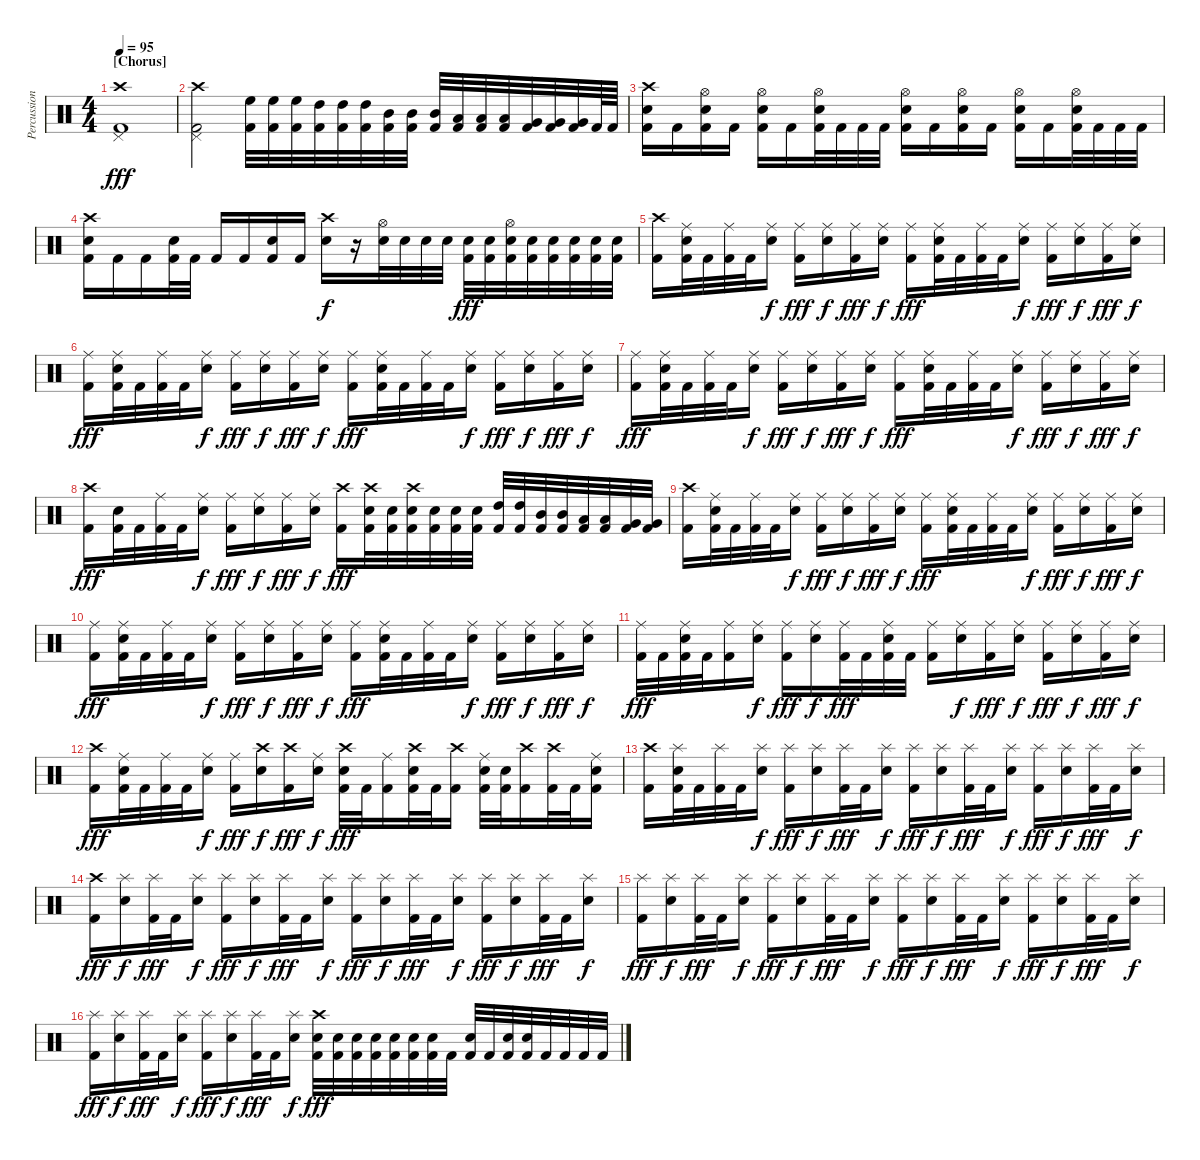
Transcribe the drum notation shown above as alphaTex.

\track ("Percussion" "Percussion") {instrument percussion}
\staff {score}
\articulation defaults
\ts (4 4)
\section ("" "[Chorus]")
\tempo 95
\clef neutral
\ks c
("Crash high (hit)" "Pedal Hi-Hat (hit)" "Kick (hit) 2").1{dy fff} |
("Crash high (hit)" "Pedal Hi-Hat (hit)" "Kick (hit) 2").2 ("High Floor Tom (hit)" "Kick (hit) 2").32 ("High Floor Tom (hit)" "Kick (hit) 2").32 ("High Floor Tom (hit)" "Kick (hit) 2").32 ("High Tom (hit)" "Kick (hit) 2").32 ("High Tom (hit)" "Kick (hit) 2").32 ("High Tom (hit)" "Kick (hit) 2").32 ("Mid Tom (hit)" "Kick (hit) 2").32 ("Mid Tom (hit)" "Kick (hit) 2").32 ("Mid Tom (hit)" "Kick (hit) 2").32 ("Low Tom (hit)" "Kick (hit) 2").32 ("Low Tom (hit)" "Kick (hit) 2").32 ("Low Tom (hit)" "Kick (hit) 2").32 ("Very Low Tom (hit)" "Kick (hit) 2").32 ("Very Low Tom (hit)" "Kick (hit) 2").32 ("Very Low Tom (hit)" "Kick (hit) 2").32 "Kick (hit) 2".64 "Kick (hit) 2".64 |
("Crash high (hit)" "Snare (hit) 2" "Kick (hit) 2").16 "Kick (hit) 2".16 ("Hi-Hat (open)" "Snare (hit) 2" "Kick (hit) 2").16 "Kick (hit) 2".16 ("Hi-Hat (open)" "Snare (hit) 2" "Kick (hit) 2").16 "Kick (hit) 2".16 ("Hi-Hat (open)" "Snare (hit) 2" "Kick (hit) 2").32 "Kick (hit) 2".32 "Kick (hit) 2".32 "Kick (hit) 2".32 ("Hi-Hat (open)" "Snare (hit) 2" "Kick (hit) 2").16 "Kick (hit) 2".16 ("Hi-Hat (open)" "Snare (hit) 2" "Kick (hit) 2").16 "Kick (hit) 2".16 ("Hi-Hat (open)" "Snare (hit) 2" "Kick (hit) 2").16 "Kick (hit) 2".16 ("Hi-Hat (open)" "Snare (hit) 2" "Kick (hit) 2").32 "Kick (hit) 2".32 "Kick (hit) 2".32 "Kick (hit) 2".32 |
("Crash high (hit)" "Snare (hit) 2" "Kick (hit) 2").16 "Kick (hit) 2".16 "Kick (hit) 2".16 ("Snare (hit) 2" "Kick (hit) 2").32 "Kick (hit) 2".32 "Kick (hit) 2".16 "Kick (hit) 2".16 ("Snare (hit) 2" "Kick (hit) 2").16 "Kick (hit) 2".16 ("Crash high (hit)" "Snare (hit) 2").16{dy f} r.16 ("Hi-Hat (open)" "Snare (hit) 2").32 "Snare (hit) 2".32 "Snare (hit) 2".32 "Snare (hit) 2".32 ("Snare (hit) 2" "Kick (hit) 2").32{dy fff} ("Snare (hit) 2" "Kick (hit) 2").32 ("Hi-Hat (open)" "Snare (hit) 2" "Kick (hit) 2").32 ("Snare (hit) 2" "Kick (hit) 2").32 ("Snare (hit) 2" "Kick (hit) 2").32 ("Snare (hit) 2" "Kick (hit) 2").32 ("Snare (hit) 2" "Kick (hit) 2").32 ("Snare (hit) 2" "Kick (hit) 2").32 |
("Crash high (hit)" "Kick (hit) 2").16 ("Ride (middle)" "Snare (hit) 2" "Kick (hit) 2").32 "Kick (hit) 2".32 ("Ride (middle)" "Kick (hit) 2").32 "Kick (hit) 2".32 ("Ride (middle)" "Snare (hit) 2").16{dy f} ("Ride (middle)" "Kick (hit) 2").16{dy fff} ("Ride (middle)" "Snare (hit) 2").16{dy f} ("Ride (middle)" "Kick (hit) 2").16{dy fff} ("Ride (middle)" "Snare (hit) 2").16{dy f} ("Ride (middle)" "Kick (hit) 2").16{dy fff} ("Ride (middle)" "Snare (hit) 2" "Kick (hit) 2").32 "Kick (hit) 2".32 ("Ride (middle)" "Kick (hit) 2").32 "Kick (hit) 2".32 ("Ride (middle)" "Snare (hit) 2").16{dy f} ("Ride (middle)" "Kick (hit) 2").16{dy fff} ("Ride (middle)" "Snare (hit) 2").16{dy f} ("Ride (middle)" "Kick (hit) 2").16{dy fff} ("Ride (middle)" "Snare (hit) 2").16{dy f} |
("Ride (middle)" "Kick (hit) 2").16{dy fff} ("Ride (middle)" "Snare (hit) 2" "Kick (hit) 2").32 "Kick (hit) 2".32 ("Ride (middle)" "Kick (hit) 2").32 "Kick (hit) 2".32 ("Ride (middle)" "Snare (hit) 2").16{dy f} ("Ride (middle)" "Kick (hit) 2").16{dy fff} ("Ride (middle)" "Snare (hit) 2").16{dy f} ("Ride (middle)" "Kick (hit) 2").16{dy fff} ("Ride (middle)" "Snare (hit) 2").16{dy f} ("Ride (middle)" "Kick (hit) 2").16{dy fff} ("Ride (middle)" "Snare (hit) 2" "Kick (hit) 2").32 "Kick (hit) 2".32 ("Ride (middle)" "Kick (hit) 2").32 "Kick (hit) 2".32 ("Ride (middle)" "Snare (hit) 2").16{dy f} ("Ride (middle)" "Kick (hit) 2").16{dy fff} ("Ride (middle)" "Snare (hit) 2").16{dy f} ("Ride (middle)" "Kick (hit) 2").16{dy fff} ("Ride (middle)" "Snare (hit) 2").16{dy f} |
("Ride (middle)" "Kick (hit) 2").16{dy fff} ("Ride (middle)" "Snare (hit) 2" "Kick (hit) 2").32 "Kick (hit) 2".32 ("Ride (middle)" "Kick (hit) 2").32 "Kick (hit) 2".32 ("Ride (middle)" "Snare (hit) 2").16{dy f} ("Ride (middle)" "Kick (hit) 2").16{dy fff} ("Ride (middle)" "Snare (hit) 2").16{dy f} ("Ride (middle)" "Kick (hit) 2").16{dy fff} ("Ride (middle)" "Snare (hit) 2").16{dy f} ("Ride (middle)" "Kick (hit) 2").16{dy fff} ("Ride (middle)" "Snare (hit) 2" "Kick (hit) 2").32 "Kick (hit) 2".32 ("Ride (middle)" "Kick (hit) 2").32 "Kick (hit) 2".32 ("Ride (middle)" "Snare (hit) 2").16{dy f} ("Ride (middle)" "Kick (hit) 2").16{dy fff} ("Ride (middle)" "Snare (hit) 2").16{dy f} ("Ride (middle)" "Kick (hit) 2").16{dy fff} ("Ride (middle)" "Snare (hit) 2").16{dy f} |
("Crash high (hit)" "Kick (hit) 2").16{dy fff} ("Snare (hit) 2" "Kick (hit) 2").32 "Kick (hit) 2".32 ("Ride (middle)" "Kick (hit) 2").32 "Kick (hit) 2".32 ("Ride (middle)" "Snare (hit) 2").16{dy f} ("Ride (middle)" "Kick (hit) 2").16{dy fff} ("Ride (middle)" "Snare (hit) 2").16{dy f} ("Ride (middle)" "Kick (hit) 2").16{dy fff} ("Ride (middle)" "Snare (hit) 2").16{dy f} ("Crash high (hit)" "Kick (hit) 2").16{dy fff} ("Crash high (hit)" "Snare (hit) 2" "Kick (hit) 2").32 ("Snare (hit) 2" "Kick (hit) 2").32 ("Crash high (hit)" "Snare (hit) 2" "Kick (hit) 2").32 ("Snare (hit) 2" "Kick (hit) 2").32 ("Snare (hit) 2" "Kick (hit) 2").32 ("Snare (hit) 2" "Kick (hit) 2").32 ("High Tom (hit)" "Kick (hit) 2").32 ("High Tom (hit)" "Kick (hit) 2").32 ("Mid Tom (hit)" "Kick (hit) 2").32 ("Mid Tom (hit)" "Kick (hit) 2").32 ("Low Tom (hit)" "Kick (hit) 2").32 ("Low Tom (hit)" "Kick (hit) 2").32 ("Very Low Tom (hit)" "Kick (hit) 2").32 ("Very Low Tom (hit)" "Kick (hit) 2").32 |
("Crash high (hit)" "Kick (hit) 2").16 ("Ride (middle)" "Snare (hit) 2" "Kick (hit) 2").32 "Kick (hit) 2".32 ("Ride (middle)" "Kick (hit) 2").32 "Kick (hit) 2".32 ("Ride (middle)" "Snare (hit) 2").16{dy f} ("Ride (middle)" "Kick (hit) 2").16{dy fff} ("Ride (middle)" "Snare (hit) 2").16{dy f} ("Ride (middle)" "Kick (hit) 2").16{dy fff} ("Ride (middle)" "Snare (hit) 2").16{dy f} ("Ride (middle)" "Kick (hit) 2").16{dy fff} ("Ride (middle)" "Snare (hit) 2" "Kick (hit) 2").32 "Kick (hit) 2".32 ("Ride (middle)" "Kick (hit) 2").32 "Kick (hit) 2".32 ("Ride (middle)" "Snare (hit) 2").16{dy f} ("Ride (middle)" "Kick (hit) 2").16{dy fff} ("Ride (middle)" "Snare (hit) 2").16{dy f} ("Ride (middle)" "Kick (hit) 2").16{dy fff} ("Ride (middle)" "Snare (hit) 2").16{dy f} |
("Ride (middle)" "Kick (hit) 2").16{dy fff} ("Ride (middle)" "Snare (hit) 2" "Kick (hit) 2").32 "Kick (hit) 2".32 ("Ride (middle)" "Kick (hit) 2").32 "Kick (hit) 2".32 ("Ride (middle)" "Snare (hit) 2").16{dy f} ("Ride (middle)" "Kick (hit) 2").16{dy fff} ("Ride (middle)" "Snare (hit) 2").16{dy f} ("Ride (middle)" "Kick (hit) 2").16{dy fff} ("Ride (middle)" "Snare (hit) 2").16{dy f} ("Ride (middle)" "Kick (hit) 2").16{dy fff} ("Ride (middle)" "Snare (hit) 2" "Kick (hit) 2").32 "Kick (hit) 2".32 ("Ride (middle)" "Kick (hit) 2").32 "Kick (hit) 2".32 ("Ride (middle)" "Snare (hit) 2").16{dy f} ("Ride (middle)" "Kick (hit) 2").16{dy fff} ("Ride (middle)" "Snare (hit) 2").16{dy f} ("Ride (middle)" "Kick (hit) 2").16{dy fff} ("Ride (middle)" "Snare (hit) 2").16{dy f} |
("Ride (middle)" "Kick (hit) 2").32{dy fff} "Kick (hit) 2".32 ("Ride (middle)" "Snare (hit) 2" "Kick (hit) 2").32 "Kick (hit) 2".32 ("Ride (middle)" "Kick (hit) 2").16 ("Ride (middle)" "Snare (hit) 2").16{dy f} ("Ride (middle)" "Kick (hit) 2").16{dy fff} ("Ride (middle)" "Snare (hit) 2").16{dy f} ("Ride (middle)" "Kick (hit) 2").32{dy fff} "Kick (hit) 2".32 ("Ride (middle)" "Snare (hit) 2" "Kick (hit) 2").32 "Kick (hit) 2".32 ("Ride (middle)" "Kick (hit) 2").16 ("Ride (middle)" "Snare (hit) 2").16{dy f} ("Ride (middle)" "Kick (hit) 2").16{dy fff} ("Ride (middle)" "Snare (hit) 2").16{dy f} ("Ride (middle)" "Kick (hit) 2").16{dy fff} ("Ride (middle)" "Snare (hit) 2").16{dy f} ("Ride (middle)" "Kick (hit) 2").16{dy fff} ("Ride (middle)" "Snare (hit) 2").16{dy f} |
("Crash high (hit)" "Kick (hit) 2").16{dy fff} ("Ride (middle)" "Snare (hit) 2" "Kick (hit) 2").32 "Kick (hit) 2".32 ("Ride (middle)" "Kick (hit) 2").32 "Kick (hit) 2".32 ("Ride (middle)" "Snare (hit) 2").16{dy f} ("Ride (middle)" "Kick (hit) 2").16{dy fff} ("Crash high (hit)" "Snare (hit) 2").16{dy f} ("Crash high (hit)" "Kick (hit) 2").16{dy fff} ("Ride (middle)" "Snare (hit) 2").16{dy f} ("Crash high (hit)" "Snare (hit) 2" "Kick (hit) 2").32{dy fff} "Kick (hit) 2".32 ("Ride (middle)" "Kick (hit) 2").16 ("Crash high (hit)" "Snare (hit) 2" "Kick (hit) 2").32 "Kick (hit) 2".32 ("Crash high (hit)" "Kick (hit) 2").16 ("Ride (middle)" "Snare (hit) 2" "Kick (hit) 2").32 ("Snare (hit) 2" "Kick (hit) 2").32 ("Crash high (hit)" "Kick (hit) 2").16 ("Crash high (hit)" "Kick (hit) 2").32 "Kick (hit) 2".32 ("Ride (middle)" "Snare (hit) 2" "Kick (hit) 2").16 |
\section ("" "")
("Crash high (hit)" "Kick (hit) 2").16 ("Splash (hit)" "Snare (hit) 2" "Kick (hit) 2").32 "Kick (hit) 2".32 ("Splash (hit)" "Kick (hit) 2").32 "Kick (hit) 2".32 ("Splash (hit)" "Snare (hit) 2").16{dy f} ("Splash (hit)" "Kick (hit) 2").16{dy fff} ("Splash (hit)" "Snare (hit) 2").16{dy f} ("Splash (hit)" "Kick (hit) 2").32{dy fff} "Kick (hit) 2".32 ("Splash (hit)" "Snare (hit) 2").16{dy f} ("Splash (hit)" "Kick (hit) 2").16{dy fff} ("Splash (hit)" "Snare (hit) 2").16{dy f} ("Splash (hit)" "Kick (hit) 2").32{dy fff} "Kick (hit) 2".32 ("Splash (hit)" "Snare (hit) 2").16{dy f} ("Splash (hit)" "Kick (hit) 2").16{dy fff} ("Splash (hit)" "Snare (hit) 2").16{dy f} ("Splash (hit)" "Kick (hit) 2").32{dy fff} "Kick (hit) 2".32 ("Splash (hit)" "Snare (hit) 2").16{dy f} |
("Crash high (hit)" "Kick (hit) 2").16{dy fff} ("Splash (hit)" "Snare (hit) 2").16{dy f} ("Splash (hit)" "Kick (hit) 2").32{dy fff} "Kick (hit) 2".32 ("Splash (hit)" "Snare (hit) 2").16{dy f} ("Splash (hit)" "Kick (hit) 2").16{dy fff} ("Splash (hit)" "Snare (hit) 2").16{dy f} ("Splash (hit)" "Kick (hit) 2").32{dy fff} "Kick (hit) 2".32 ("Splash (hit)" "Snare (hit) 2").16{dy f} ("Splash (hit)" "Kick (hit) 2").16{dy fff} ("Splash (hit)" "Snare (hit) 2").16{dy f} ("Splash (hit)" "Kick (hit) 2").32{dy fff} "Kick (hit) 2".32 ("Splash (hit)" "Snare (hit) 2").16{dy f} ("Splash (hit)" "Kick (hit) 2").16{dy fff} ("Splash (hit)" "Snare (hit) 2").16{dy f} ("Splash (hit)" "Kick (hit) 2").32{dy fff} "Kick (hit) 2".32 ("Splash (hit)" "Snare (hit) 2").16{dy f} |
("Splash (hit)" "Kick (hit) 2").16{dy fff} ("Splash (hit)" "Snare (hit) 2").16{dy f} ("Splash (hit)" "Kick (hit) 2").32{dy fff} "Kick (hit) 2".32 ("Splash (hit)" "Snare (hit) 2").16{dy f} ("Splash (hit)" "Kick (hit) 2").16{dy fff} ("Splash (hit)" "Snare (hit) 2").16{dy f} ("Splash (hit)" "Kick (hit) 2").32{dy fff} "Kick (hit) 2".32 ("Splash (hit)" "Snare (hit) 2").16{dy f} ("Splash (hit)" "Kick (hit) 2").16{dy fff} ("Splash (hit)" "Snare (hit) 2").16{dy f} ("Splash (hit)" "Kick (hit) 2").32{dy fff} "Kick (hit) 2".32 ("Splash (hit)" "Snare (hit) 2").16{dy f} ("Splash (hit)" "Kick (hit) 2").16{dy fff} ("Splash (hit)" "Snare (hit) 2").16{dy f} ("Splash (hit)" "Kick (hit) 2").32{dy fff} "Kick (hit) 2".32 ("Splash (hit)" "Snare (hit) 2").16{dy f} |
("Splash (hit)" "Kick (hit) 2").16{dy fff} ("Splash (hit)" "Snare (hit) 2").16{dy f} ("Splash (hit)" "Kick (hit) 2").32{dy fff} "Kick (hit) 2".32 ("Splash (hit)" "Snare (hit) 2").16{dy f} ("Splash (hit)" "Kick (hit) 2").16{dy fff} ("Splash (hit)" "Snare (hit) 2").16{dy f} ("Splash (hit)" "Kick (hit) 2").32{dy fff} "Kick (hit) 2".32 ("Splash (hit)" "Snare (hit) 2").16{dy f} ("Crash high (hit)" "Snare (hit) 2" "Kick (hit) 2").32{dy fff} ("Snare (hit) 2" "Kick (hit) 2").32 ("Snare (hit) 2" "Kick (hit) 2").32 ("Snare (hit) 2" "Kick (hit) 2").32 ("Snare (hit) 2" "Kick (hit) 2").32 ("Snare (hit) 2" "Kick (hit) 2").32 ("Snare (hit) 2" "Kick (hit) 2").32 "Kick (hit) 2".32 ("Snare (hit) 2" "Kick (hit) 2").32 "Kick (hit) 2".32 ("Snare (hit) 2" "Kick (hit) 2").32 ("Snare (hit) 2" "Kick (hit) 2").32 "Kick (hit) 2".32 "Kick (hit) 2".32 "Kick (hit) 2".32 "Kick (hit) 2".32
